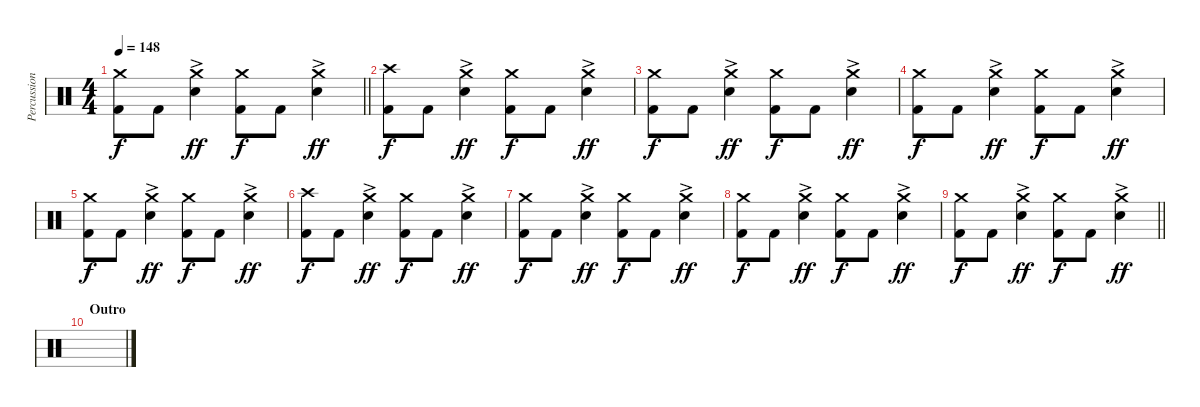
\track ("Percussion" "Percussion") {instrument percussion}
\staff {score}
\articulation defaults
\ts (4 4)
\tempo 148
\clef neutral
\barLineRight lightlight
\ks c
("Crash medium (hit)" "Kick (hit) 2").8{dy f} "Kick (hit) 2".8 ("Crash medium (hit)" "Electric Snare (hit)"{ac}).4{dy ff} ("Crash medium (hit)" "Kick (hit) 2").8{dy f} "Kick (hit) 2".8 ("Crash medium (hit)" "Electric Snare (hit)"{ac}).4{dy ff} |
("Crash high (hit)" "Kick (hit) 2").8{dy f} "Kick (hit) 2".8 ("Crash medium (hit)" "Electric Snare (hit)"{ac}).4{dy ff} ("Crash medium (hit)" "Kick (hit) 2").8{dy f} "Kick (hit) 2".8 ("Crash medium (hit)" "Electric Snare (hit)"{ac}).4{dy ff} |
("Crash medium (hit)" "Kick (hit) 2").8{dy f} "Kick (hit) 2".8 ("Crash medium (hit)" "Electric Snare (hit)"{ac}).4{dy ff} ("Crash medium (hit)" "Kick (hit) 2").8{dy f} "Kick (hit) 2".8 ("Crash medium (hit)" "Electric Snare (hit)"{ac}).4{dy ff} |
("Crash medium (hit)" "Kick (hit) 2").8{dy f} "Kick (hit) 2".8 ("Crash medium (hit)" "Electric Snare (hit)"{ac}).4{dy ff} ("Crash medium (hit)" "Kick (hit) 2").8{dy f} "Kick (hit) 2".8 ("Crash medium (hit)" "Electric Snare (hit)"{ac}).4{dy ff} |
("Crash medium (hit)" "Kick (hit) 2").8{dy f} "Kick (hit) 2".8 ("Crash medium (hit)" "Electric Snare (hit)"{ac}).4{dy ff} ("Crash medium (hit)" "Kick (hit) 2").8{dy f} "Kick (hit) 2".8 ("Crash medium (hit)" "Electric Snare (hit)"{ac}).4{dy ff} |
("Crash high (hit)" "Kick (hit) 2").8{dy f} "Kick (hit) 2".8 ("Crash medium (hit)" "Electric Snare (hit)"{ac}).4{dy ff} ("Crash medium (hit)" "Kick (hit) 2").8{dy f} "Kick (hit) 2".8 ("Crash medium (hit)" "Electric Snare (hit)"{ac}).4{dy ff} |
("Crash medium (hit)" "Kick (hit) 2").8{dy f} "Kick (hit) 2".8 ("Crash medium (hit)" "Electric Snare (hit)"{ac}).4{dy ff} ("Crash medium (hit)" "Kick (hit) 2").8{dy f} "Kick (hit) 2".8 ("Crash medium (hit)" "Electric Snare (hit)"{ac}).4{dy ff} |
("Crash medium (hit)" "Kick (hit) 2").8{dy f} "Kick (hit) 2".8 ("Crash medium (hit)" "Electric Snare (hit)"{ac}).4{dy ff} ("Crash medium (hit)" "Kick (hit) 2").8{dy f} "Kick (hit) 2".8 ("Crash medium (hit)" "Electric Snare (hit)"{ac}).4{dy ff} |
\barLineRight lightlight
("Crash medium (hit)" "Kick (hit) 2").8{dy f} "Kick (hit) 2".8 ("Crash medium (hit)" "Electric Snare (hit)"{ac}).4{dy ff} ("Crash medium (hit)" "Kick (hit) 2").8{dy f} "Kick (hit) 2".8 ("Crash medium (hit)" "Electric Snare (hit)"{ac}).4{dy ff} |
\section ("" "Outro")
